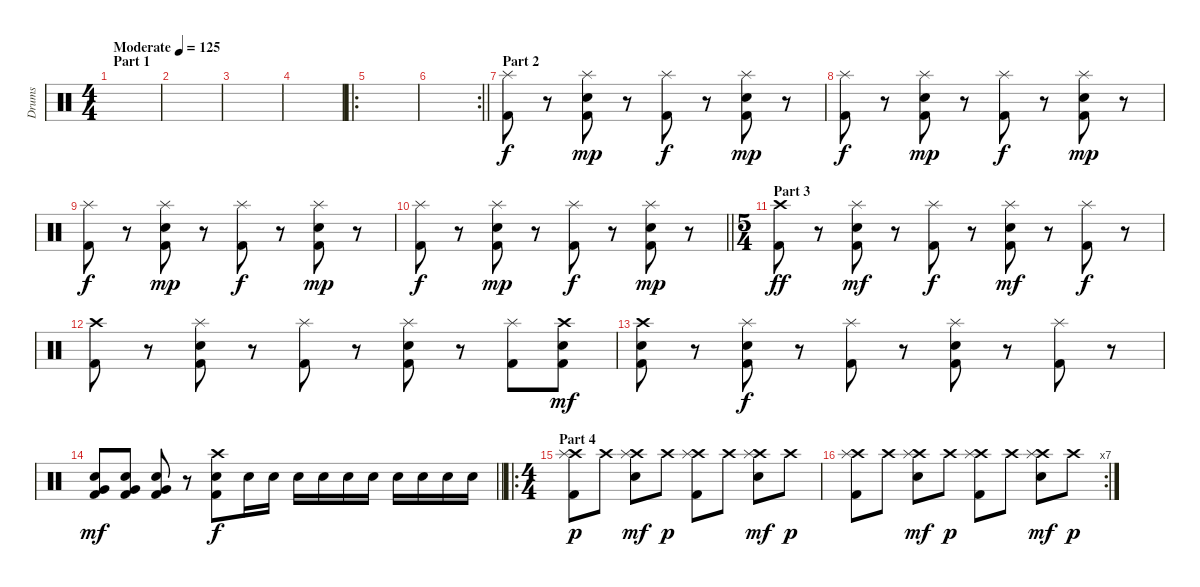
\track ("Drums" "Drums") {instrument percussion}
\staff {score}
\articulation defaults
\ts (4 4)
\section ("" "Part 1")
\tempo (125 "Moderate")
\clef neutral
\ks c
|
|
|
|
\ro
|
\rc 2
\barLineRight lightlight
|
\section ("" "Part 2")
("Splash (hit)" "Kick (hit) 2").8 r.8 ("Splash (hit)" "Electric Snare (hit)" "Kick (hit) 2").8{dy mp} r.8 ("Splash (hit)" "Kick (hit) 2").8{dy f} r.8 ("Splash (hit)" "Electric Snare (hit)" "Kick (hit) 2").8{dy mp} r.8 |
("Splash (hit)" "Kick (hit) 2").8{dy f} r.8 ("Splash (hit)" "Electric Snare (hit)" "Kick (hit) 2").8{dy mp} r.8 ("Splash (hit)" "Kick (hit) 2").8{dy f} r.8 ("Splash (hit)" "Electric Snare (hit)" "Kick (hit) 2").8{dy mp} r.8 |
("Splash (hit)" "Kick (hit) 2").8{dy f} r.8 ("Splash (hit)" "Electric Snare (hit)" "Kick (hit) 2").8{dy mp} r.8 ("Splash (hit)" "Kick (hit) 2").8{dy f} r.8 ("Splash (hit)" "Electric Snare (hit)" "Kick (hit) 2").8{dy mp} r.8 |
\barLineRight lightlight
("Splash (hit)" "Kick (hit) 2").8{dy f} r.8 ("Splash (hit)" "Electric Snare (hit)" "Kick (hit) 2").8{dy mp} r.8 ("Splash (hit)" "Kick (hit) 2").8{dy f} r.8 ("Splash (hit)" "Electric Snare (hit)" "Kick (hit) 2").8{dy mp} r.8 |
\ts (5 4)
\section ("" "Part 3")
("Crash high (hit)" "Kick (hit) 2").8{dy ff} r.8 ("Splash (hit)" "Electric Snare (hit)" "Kick (hit) 2").8{dy mf} r.8 ("Splash (hit)" "Kick (hit) 2").8{dy f} r.8 ("Splash (hit)" "Electric Snare (hit)" "Kick (hit) 2").8{dy mf} r.8 ("Splash (hit)" "Kick (hit) 2").8{dy f} r.8 |
("Crash high (hit)" "Kick (hit) 2").8 r.8 ("Splash (hit)" "Electric Snare (hit)" "Kick (hit) 2").8 r.8 ("Splash (hit)" "Kick (hit) 2").8 r.8 ("Splash (hit)" "Electric Snare (hit)" "Kick (hit) 2").8 r.8 ("Splash (hit)" "Kick (hit) 2").8 ("Crash high (hit)" "Electric Snare (hit)" "Kick (hit) 2").8{dy mf} |
("Crash high (hit)" "Electric Snare (hit)" "Kick (hit) 2").8 r.8 ("Splash (hit)" "Electric Snare (hit)" "Kick (hit) 2").8{dy f} r.8 ("Splash (hit)" "Kick (hit) 2").8 r.8 ("Splash (hit)" "Electric Snare (hit)" "Kick (hit) 2").8 r.8 ("Splash (hit)" "Kick (hit) 2").8 r.8 |
\barLineRight lightlight
("Very Low Tom (hit)" "Electric Snare (hit)" "Kick (hit) 2").8{dy mf} ("Very Low Tom (hit)" "Electric Snare (hit)" "Kick (hit) 2").8 ("Very Low Tom (hit)" "Electric Snare (hit)" "Kick (hit) 2").8 r.8 ("Crash high (hit)" "Electric Snare (hit)" "Kick (hit) 2").8{dy f} "Electric Snare (hit)".16 "Electric Snare (hit)".16 "Electric Snare (hit)".16 "Electric Snare (hit)".16 "Electric Snare (hit)".16 "Electric Snare (hit)".16 "Electric Snare (hit)".16 "Electric Snare (hit)".16 "Electric Snare (hit)".16 "Electric Snare (hit)".16 |
\ro
\ts (4 4)
\section ("" "Part 4")
("Crash high (hit)" "Splash (hit)" "Kick (hit) 2").8{dy p} "Crash high (hit)".8 ("Crash high (hit)" "Splash (hit)" "Electric Snare (hit)").8{dy mf} "Crash high (hit)".8{dy p} ("Crash high (hit)" "Splash (hit)" "Kick (hit) 2").8 "Crash high (hit)".8 ("Crash high (hit)" "Splash (hit)" "Electric Snare (hit)").8{dy mf} "Crash high (hit)".8{dy p} |
\rc 7
("Crash high (hit)" "Splash (hit)" "Kick (hit) 2").8 "Crash high (hit)".8 ("Crash high (hit)" "Splash (hit)" "Electric Snare (hit)").8{dy mf} "Crash high (hit)".8{dy p} ("Crash high (hit)" "Splash (hit)" "Kick (hit) 2").8 "Crash high (hit)".8 ("Crash high (hit)" "Splash (hit)" "Electric Snare (hit)").8{dy mf} "Crash high (hit)".8{dy p}
